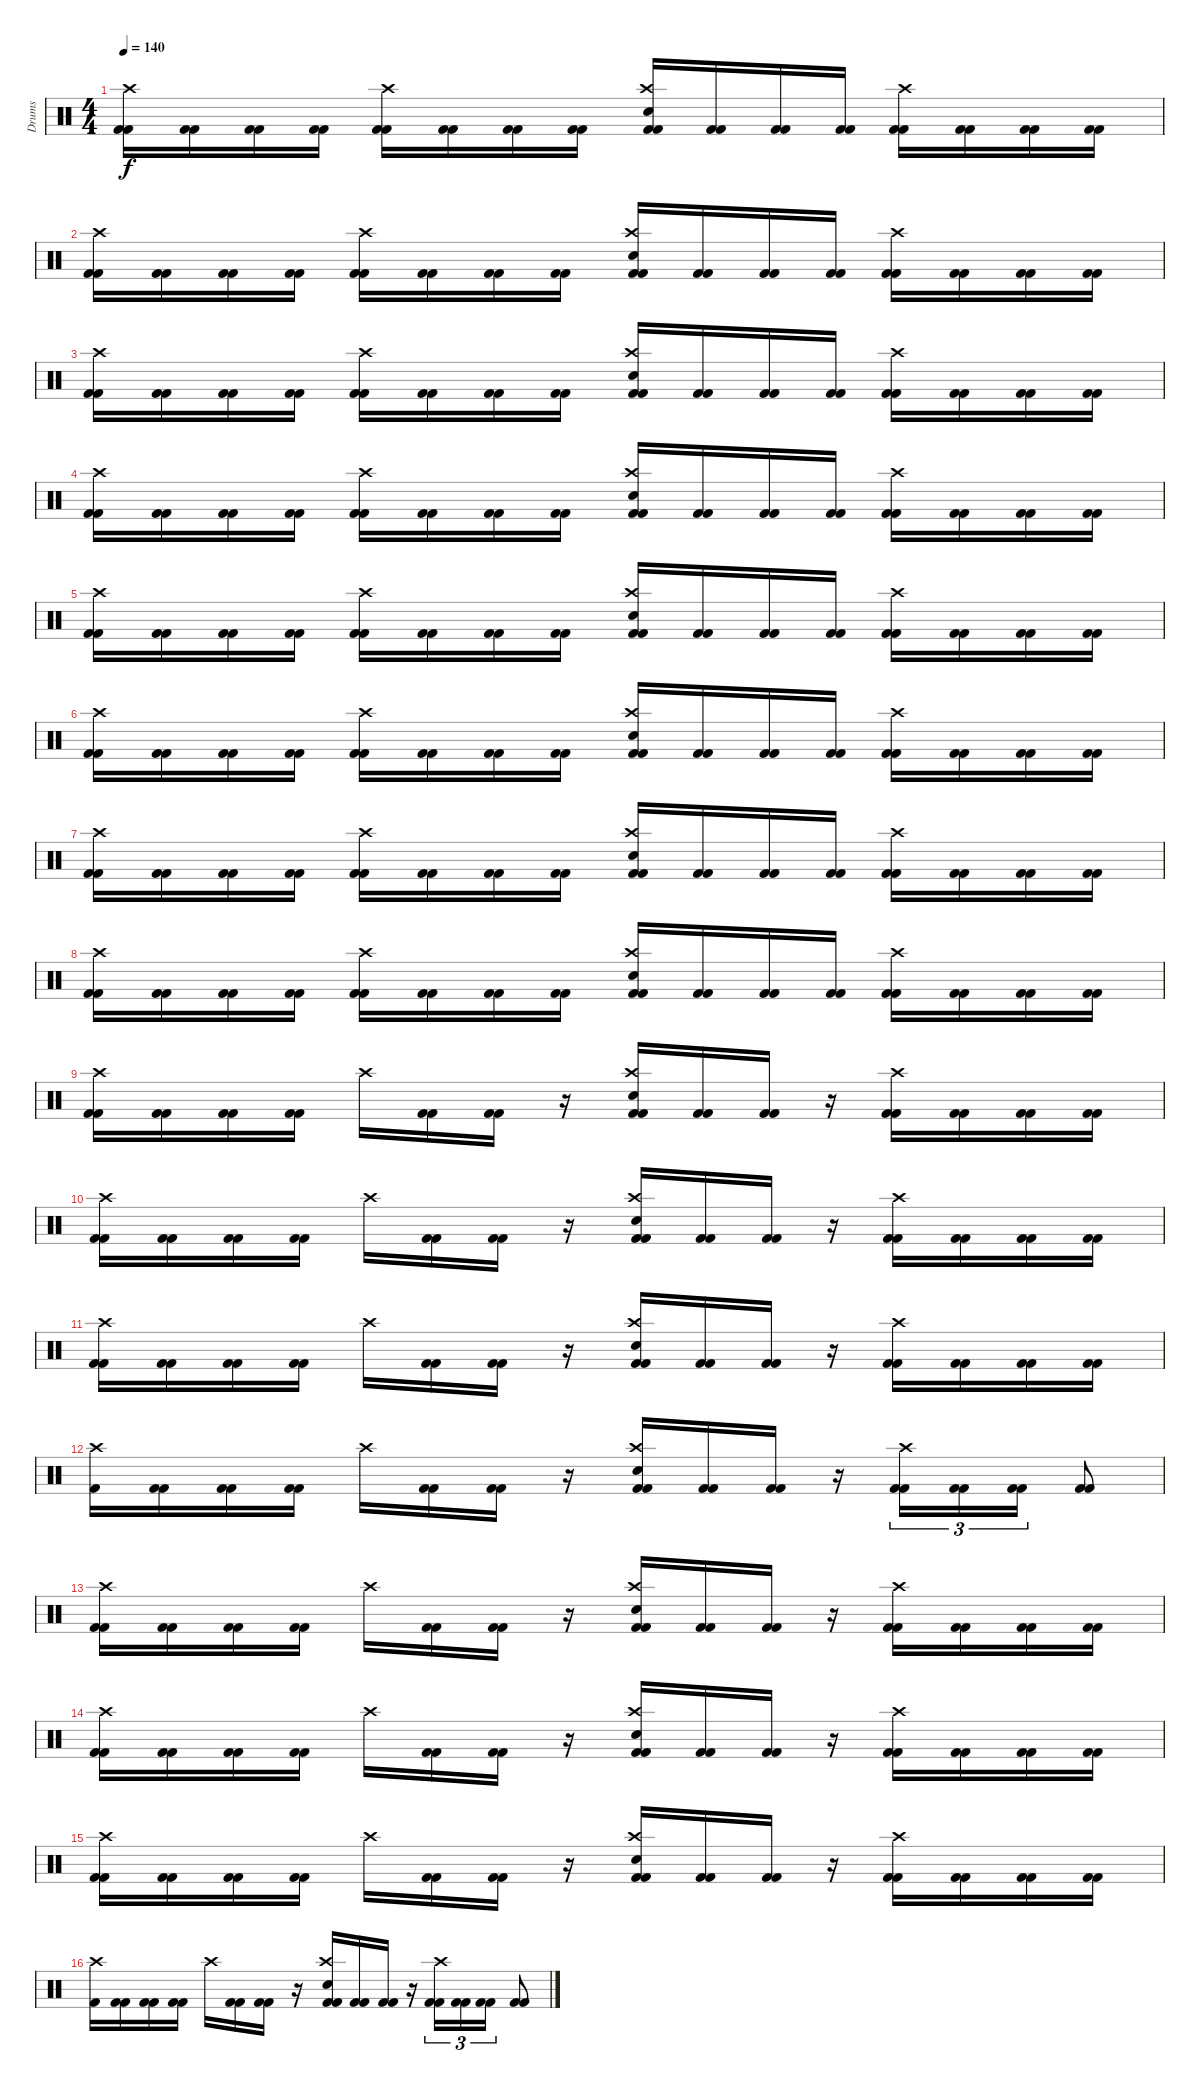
\track ("Drums" "Drums") {instrument percussion}
\staff {score}
\articulation defaults
\ts (4 4)
\tempo 140
\clef neutral
\ks c
("Kick (hit) 2" "Crash high (hit)" "Kick (hit) 2").16{dy f} ("Kick (hit) 2" "Kick (hit) 2").16 ("Kick (hit) 2" "Kick (hit) 2").16 ("Kick (hit) 2" "Kick (hit) 2").16 ("Kick (hit) 2" "Crash high (hit)" "Kick (hit) 2").16 ("Kick (hit) 2" "Kick (hit) 2").16 ("Kick (hit) 2" "Kick (hit) 2").16 ("Kick (hit) 2" "Kick (hit) 2").16 ("Kick (hit) 2" "Crash high (hit)" "Electric Snare (hit)" "Kick (hit) 2").16 ("Kick (hit) 2" "Kick (hit) 2").16 ("Kick (hit) 2" "Kick (hit) 2").16 ("Kick (hit) 2" "Kick (hit) 2").16 ("Kick (hit) 2" "Crash high (hit)" "Kick (hit) 2").16 ("Kick (hit) 2" "Kick (hit) 2").16 ("Kick (hit) 2" "Kick (hit) 2").16 ("Kick (hit) 2" "Kick (hit) 2").16 |
("Kick (hit) 2" "Crash high (hit)" "Kick (hit) 2").16 ("Kick (hit) 2" "Kick (hit) 2").16 ("Kick (hit) 2" "Kick (hit) 2").16 ("Kick (hit) 2" "Kick (hit) 2").16 ("Kick (hit) 2" "Crash high (hit)" "Kick (hit) 2").16 ("Kick (hit) 2" "Kick (hit) 2").16 ("Kick (hit) 2" "Kick (hit) 2").16 ("Kick (hit) 2" "Kick (hit) 2").16 ("Kick (hit) 2" "Crash high (hit)" "Electric Snare (hit)" "Kick (hit) 2").16 ("Kick (hit) 2" "Kick (hit) 2").16 ("Kick (hit) 2" "Kick (hit) 2").16 ("Kick (hit) 2" "Kick (hit) 2").16 ("Kick (hit) 2" "Crash high (hit)" "Kick (hit) 2").16 ("Kick (hit) 2" "Kick (hit) 2").16 ("Kick (hit) 2" "Kick (hit) 2").16 ("Kick (hit) 2" "Kick (hit) 2").16 |
("Kick (hit) 2" "Crash high (hit)" "Kick (hit) 2").16 ("Kick (hit) 2" "Kick (hit) 2").16 ("Kick (hit) 2" "Kick (hit) 2").16 ("Kick (hit) 2" "Kick (hit) 2").16 ("Kick (hit) 2" "Crash high (hit)" "Kick (hit) 2").16 ("Kick (hit) 2" "Kick (hit) 2").16 ("Kick (hit) 2" "Kick (hit) 2").16 ("Kick (hit) 2" "Kick (hit) 2").16 ("Kick (hit) 2" "Crash high (hit)" "Electric Snare (hit)" "Kick (hit) 2").16 ("Kick (hit) 2" "Kick (hit) 2").16 ("Kick (hit) 2" "Kick (hit) 2").16 ("Kick (hit) 2" "Kick (hit) 2").16 ("Kick (hit) 2" "Crash high (hit)" "Kick (hit) 2").16 ("Kick (hit) 2" "Kick (hit) 2").16 ("Kick (hit) 2" "Kick (hit) 2").16 ("Kick (hit) 2" "Kick (hit) 2").16 |
("Kick (hit) 2" "Crash high (hit)" "Kick (hit) 2").16 ("Kick (hit) 2" "Kick (hit) 2").16 ("Kick (hit) 2" "Kick (hit) 2").16 ("Kick (hit) 2" "Kick (hit) 2").16 ("Kick (hit) 2" "Crash high (hit)" "Kick (hit) 2").16 ("Kick (hit) 2" "Kick (hit) 2").16 ("Kick (hit) 2" "Kick (hit) 2").16 ("Kick (hit) 2" "Kick (hit) 2").16 ("Kick (hit) 2" "Crash high (hit)" "Electric Snare (hit)" "Kick (hit) 2").16 ("Kick (hit) 2" "Kick (hit) 2").16 ("Kick (hit) 2" "Kick (hit) 2").16 ("Kick (hit) 2" "Kick (hit) 2").16 ("Kick (hit) 2" "Crash high (hit)" "Kick (hit) 2").16 ("Kick (hit) 2" "Kick (hit) 2").16 ("Kick (hit) 2" "Kick (hit) 2").16 ("Kick (hit) 2" "Kick (hit) 2").16 |
("Kick (hit) 2" "Crash high (hit)" "Kick (hit) 2").16 ("Kick (hit) 2" "Kick (hit) 2").16 ("Kick (hit) 2" "Kick (hit) 2").16 ("Kick (hit) 2" "Kick (hit) 2").16 ("Kick (hit) 2" "Crash high (hit)" "Kick (hit) 2").16 ("Kick (hit) 2" "Kick (hit) 2").16 ("Kick (hit) 2" "Kick (hit) 2").16 ("Kick (hit) 2" "Kick (hit) 2").16 ("Kick (hit) 2" "Crash high (hit)" "Electric Snare (hit)" "Kick (hit) 2").16 ("Kick (hit) 2" "Kick (hit) 2").16 ("Kick (hit) 2" "Kick (hit) 2").16 ("Kick (hit) 2" "Kick (hit) 2").16 ("Kick (hit) 2" "Crash high (hit)" "Kick (hit) 2").16 ("Kick (hit) 2" "Kick (hit) 2").16 ("Kick (hit) 2" "Kick (hit) 2").16 ("Kick (hit) 2" "Kick (hit) 2").16 |
("Kick (hit) 2" "Crash high (hit)" "Kick (hit) 2").16 ("Kick (hit) 2" "Kick (hit) 2").16 ("Kick (hit) 2" "Kick (hit) 2").16 ("Kick (hit) 2" "Kick (hit) 2").16 ("Kick (hit) 2" "Crash high (hit)" "Kick (hit) 2").16 ("Kick (hit) 2" "Kick (hit) 2").16 ("Kick (hit) 2" "Kick (hit) 2").16 ("Kick (hit) 2" "Kick (hit) 2").16 ("Kick (hit) 2" "Crash high (hit)" "Electric Snare (hit)" "Kick (hit) 2").16 ("Kick (hit) 2" "Kick (hit) 2").16 ("Kick (hit) 2" "Kick (hit) 2").16 ("Kick (hit) 2" "Kick (hit) 2").16 ("Kick (hit) 2" "Crash high (hit)" "Kick (hit) 2").16 ("Kick (hit) 2" "Kick (hit) 2").16 ("Kick (hit) 2" "Kick (hit) 2").16 ("Kick (hit) 2" "Kick (hit) 2").16 |
("Kick (hit) 2" "Crash high (hit)" "Kick (hit) 2").16 ("Kick (hit) 2" "Kick (hit) 2").16 ("Kick (hit) 2" "Kick (hit) 2").16 ("Kick (hit) 2" "Kick (hit) 2").16 ("Kick (hit) 2" "Crash high (hit)" "Kick (hit) 2").16 ("Kick (hit) 2" "Kick (hit) 2").16 ("Kick (hit) 2" "Kick (hit) 2").16 ("Kick (hit) 2" "Kick (hit) 2").16 ("Kick (hit) 2" "Crash high (hit)" "Electric Snare (hit)" "Kick (hit) 2").16 ("Kick (hit) 2" "Kick (hit) 2").16 ("Kick (hit) 2" "Kick (hit) 2").16 ("Kick (hit) 2" "Kick (hit) 2").16 ("Kick (hit) 2" "Crash high (hit)" "Kick (hit) 2").16 ("Kick (hit) 2" "Kick (hit) 2").16 ("Kick (hit) 2" "Kick (hit) 2").16 ("Kick (hit) 2" "Kick (hit) 2").16 |
("Kick (hit) 2" "Crash high (hit)" "Kick (hit) 2").16 ("Kick (hit) 2" "Kick (hit) 2").16 ("Kick (hit) 2" "Kick (hit) 2").16 ("Kick (hit) 2" "Kick (hit) 2").16 ("Kick (hit) 2" "Crash high (hit)" "Kick (hit) 2").16 ("Kick (hit) 2" "Kick (hit) 2").16 ("Kick (hit) 2" "Kick (hit) 2").16 ("Kick (hit) 2" "Kick (hit) 2").16 ("Kick (hit) 2" "Crash high (hit)" "Electric Snare (hit)" "Kick (hit) 2").16 ("Kick (hit) 2" "Kick (hit) 2").16 ("Kick (hit) 2" "Kick (hit) 2").16 ("Kick (hit) 2" "Kick (hit) 2").16 ("Kick (hit) 2" "Crash high (hit)" "Kick (hit) 2").16 ("Kick (hit) 2" "Kick (hit) 2").16 ("Kick (hit) 2" "Kick (hit) 2").16 ("Kick (hit) 2" "Kick (hit) 2").16 |
("Kick (hit) 2" "Crash high (hit)" "Kick (hit) 2").16 ("Kick (hit) 2" "Kick (hit) 2").16 ("Kick (hit) 2" "Kick (hit) 2").16 ("Kick (hit) 2" "Kick (hit) 2").16 "Crash high (hit)".16 ("Kick (hit) 2" "Kick (hit) 2").16 ("Kick (hit) 2" "Kick (hit) 2").16 r.16 ("Kick (hit) 2" "Crash high (hit)" "Electric Snare (hit)" "Kick (hit) 2").16 ("Kick (hit) 2" "Kick (hit) 2").16 ("Kick (hit) 2" "Kick (hit) 2").16 r.16 ("Kick (hit) 2" "Crash high (hit)" "Kick (hit) 2").16 ("Kick (hit) 2" "Kick (hit) 2").16 ("Kick (hit) 2" "Kick (hit) 2").16 ("Kick (hit) 2" "Kick (hit) 2").16 |
("Kick (hit) 2" "Crash high (hit)" "Kick (hit) 2").16 ("Kick (hit) 2" "Kick (hit) 2").16 ("Kick (hit) 2" "Kick (hit) 2").16 ("Kick (hit) 2" "Kick (hit) 2").16 "Crash high (hit)".16 ("Kick (hit) 2" "Kick (hit) 2").16 ("Kick (hit) 2" "Kick (hit) 2").16 r.16 ("Kick (hit) 2" "Crash high (hit)" "Electric Snare (hit)" "Kick (hit) 2").16 ("Kick (hit) 2" "Kick (hit) 2").16 ("Kick (hit) 2" "Kick (hit) 2").16 r.16 ("Kick (hit) 2" "Crash high (hit)" "Kick (hit) 2").16 ("Kick (hit) 2" "Kick (hit) 2").16 ("Kick (hit) 2" "Kick (hit) 2").16 ("Kick (hit) 2" "Kick (hit) 2").16 |
("Kick (hit) 2" "Crash high (hit)" "Kick (hit) 2").16 ("Kick (hit) 2" "Kick (hit) 2").16 ("Kick (hit) 2" "Kick (hit) 2").16 ("Kick (hit) 2" "Kick (hit) 2").16 "Crash high (hit)".16 ("Kick (hit) 2" "Kick (hit) 2").16 ("Kick (hit) 2" "Kick (hit) 2").16 r.16 ("Kick (hit) 2" "Crash high (hit)" "Electric Snare (hit)" "Kick (hit) 2").16 ("Kick (hit) 2" "Kick (hit) 2").16 ("Kick (hit) 2" "Kick (hit) 2").16 r.16 ("Kick (hit) 2" "Crash high (hit)" "Kick (hit) 2").16 ("Kick (hit) 2" "Kick (hit) 2").16 ("Kick (hit) 2" "Kick (hit) 2").16 ("Kick (hit) 2" "Kick (hit) 2").16 |
("Crash high (hit)" "Kick (hit) 2").16 ("Kick (hit) 2" "Kick (hit) 2").16 ("Kick (hit) 2" "Kick (hit) 2").16 ("Kick (hit) 2" "Kick (hit) 2").16 "Crash high (hit)".16 ("Kick (hit) 2" "Kick (hit) 2").16 ("Kick (hit) 2" "Kick (hit) 2").16 r.16 ("Kick (hit) 2" "Crash high (hit)" "Electric Snare (hit)" "Kick (hit) 2").16 ("Kick (hit) 2" "Kick (hit) 2").16 ("Kick (hit) 2" "Kick (hit) 2").16 r.16 ("Kick (hit) 2" "Crash high (hit)" "Kick (hit) 2").16{tu (3 2)} ("Kick (hit) 2" "Kick (hit) 2").16{tu (3 2)} ("Kick (hit) 2" "Kick (hit) 2").16{tu (3 2)} ("Kick (hit) 2" "Kick (hit) 2").8 |
("Kick (hit) 2" "Crash high (hit)" "Kick (hit) 2").16 ("Kick (hit) 2" "Kick (hit) 2").16 ("Kick (hit) 2" "Kick (hit) 2").16 ("Kick (hit) 2" "Kick (hit) 2").16 "Crash high (hit)".16 ("Kick (hit) 2" "Kick (hit) 2").16 ("Kick (hit) 2" "Kick (hit) 2").16 r.16 ("Kick (hit) 2" "Crash high (hit)" "Electric Snare (hit)" "Kick (hit) 2").16 ("Kick (hit) 2" "Kick (hit) 2").16 ("Kick (hit) 2" "Kick (hit) 2").16 r.16 ("Kick (hit) 2" "Crash high (hit)" "Kick (hit) 2").16 ("Kick (hit) 2" "Kick (hit) 2").16 ("Kick (hit) 2" "Kick (hit) 2").16 ("Kick (hit) 2" "Kick (hit) 2").16 |
("Kick (hit) 2" "Crash high (hit)" "Kick (hit) 2").16 ("Kick (hit) 2" "Kick (hit) 2").16 ("Kick (hit) 2" "Kick (hit) 2").16 ("Kick (hit) 2" "Kick (hit) 2").16 "Crash high (hit)".16 ("Kick (hit) 2" "Kick (hit) 2").16 ("Kick (hit) 2" "Kick (hit) 2").16 r.16 ("Kick (hit) 2" "Crash high (hit)" "Electric Snare (hit)" "Kick (hit) 2").16 ("Kick (hit) 2" "Kick (hit) 2").16 ("Kick (hit) 2" "Kick (hit) 2").16 r.16 ("Kick (hit) 2" "Crash high (hit)" "Kick (hit) 2").16 ("Kick (hit) 2" "Kick (hit) 2").16 ("Kick (hit) 2" "Kick (hit) 2").16 ("Kick (hit) 2" "Kick (hit) 2").16 |
("Kick (hit) 2" "Crash high (hit)" "Kick (hit) 2").16 ("Kick (hit) 2" "Kick (hit) 2").16 ("Kick (hit) 2" "Kick (hit) 2").16 ("Kick (hit) 2" "Kick (hit) 2").16 "Crash high (hit)".16 ("Kick (hit) 2" "Kick (hit) 2").16 ("Kick (hit) 2" "Kick (hit) 2").16 r.16 ("Kick (hit) 2" "Crash high (hit)" "Electric Snare (hit)" "Kick (hit) 2").16 ("Kick (hit) 2" "Kick (hit) 2").16 ("Kick (hit) 2" "Kick (hit) 2").16 r.16 ("Kick (hit) 2" "Crash high (hit)" "Kick (hit) 2").16 ("Kick (hit) 2" "Kick (hit) 2").16 ("Kick (hit) 2" "Kick (hit) 2").16 ("Kick (hit) 2" "Kick (hit) 2").16 |
("Crash high (hit)" "Kick (hit) 2").16 ("Kick (hit) 2" "Kick (hit) 2").16 ("Kick (hit) 2" "Kick (hit) 2").16 ("Kick (hit) 2" "Kick (hit) 2").16 "Crash high (hit)".16 ("Kick (hit) 2" "Kick (hit) 2").16 ("Kick (hit) 2" "Kick (hit) 2").16 r.16 ("Kick (hit) 2" "Crash high (hit)" "Electric Snare (hit)" "Kick (hit) 2").16 ("Kick (hit) 2" "Kick (hit) 2").16 ("Kick (hit) 2" "Kick (hit) 2").16 r.16 ("Kick (hit) 2" "Crash high (hit)" "Kick (hit) 2").16{tu (3 2)} ("Kick (hit) 2" "Kick (hit) 2").16{tu (3 2)} ("Kick (hit) 2" "Kick (hit) 2").16{tu (3 2)} ("Kick (hit) 2" "Kick (hit) 2").8
